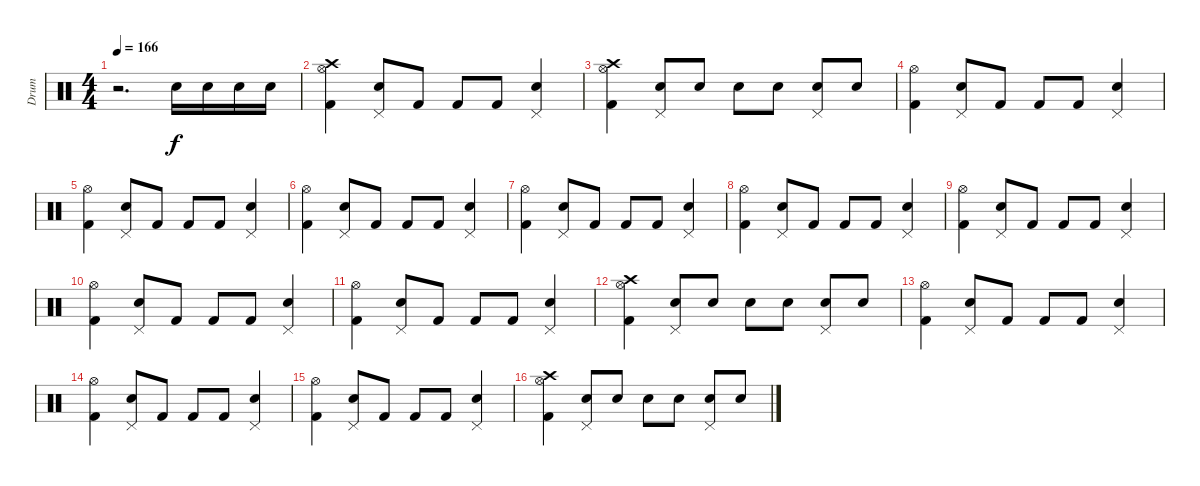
\track ("Drum" "Drum") {instrument percussion}
\staff {score}
\articulation defaults
\ts (4 4)
\tempo 166
\clef neutral
\ks c
r.2{d dy f} "Electric Snare (hit)".16 "Electric Snare (hit)".16 "Electric Snare (hit)".16 "Electric Snare (hit)".16 |
("Kick (hit) 2" "Hi-Hat (open)" "Crash high (hit)").4 ("Electric Snare (hit)" "Pedal Hi-Hat (hit)").8 "Kick (hit) 2".8 "Kick (hit) 2".8 "Kick (hit) 2".8 ("Electric Snare (hit)" "Pedal Hi-Hat (hit)").4 |
("Kick (hit) 2" "Hi-Hat (open)" "Crash high (hit)").4 ("Electric Snare (hit)" "Pedal Hi-Hat (hit)").8 "Electric Snare (hit)".8 "Electric Snare (hit)".8 "Electric Snare (hit)".8 ("Electric Snare (hit)" "Pedal Hi-Hat (hit)").8 "Electric Snare (hit)".8 |
("Kick (hit) 2" "Hi-Hat (open)").4 ("Electric Snare (hit)" "Pedal Hi-Hat (hit)").8 "Kick (hit) 2".8 "Kick (hit) 2".8 "Kick (hit) 2".8 ("Electric Snare (hit)" "Pedal Hi-Hat (hit)").4 |
("Kick (hit) 2" "Hi-Hat (open)").4 ("Electric Snare (hit)" "Pedal Hi-Hat (hit)").8 "Kick (hit) 2".8 "Kick (hit) 2".8 "Kick (hit) 2".8 ("Electric Snare (hit)" "Pedal Hi-Hat (hit)").4 |
("Kick (hit) 2" "Hi-Hat (open)").4 ("Electric Snare (hit)" "Pedal Hi-Hat (hit)").8 "Kick (hit) 2".8 "Kick (hit) 2".8 "Kick (hit) 2".8 ("Electric Snare (hit)" "Pedal Hi-Hat (hit)").4 |
("Kick (hit) 2" "Hi-Hat (open)").4 ("Electric Snare (hit)" "Pedal Hi-Hat (hit)").8 "Kick (hit) 2".8 "Kick (hit) 2".8 "Kick (hit) 2".8 ("Electric Snare (hit)" "Pedal Hi-Hat (hit)").4 |
("Kick (hit) 2" "Hi-Hat (open)").4 ("Electric Snare (hit)" "Pedal Hi-Hat (hit)").8 "Kick (hit) 2".8 "Kick (hit) 2".8 "Kick (hit) 2".8 ("Electric Snare (hit)" "Pedal Hi-Hat (hit)").4 |
("Kick (hit) 2" "Hi-Hat (open)").4 ("Electric Snare (hit)" "Pedal Hi-Hat (hit)").8 "Kick (hit) 2".8 "Kick (hit) 2".8 "Kick (hit) 2".8 ("Electric Snare (hit)" "Pedal Hi-Hat (hit)").4 |
("Kick (hit) 2" "Hi-Hat (open)").4 ("Electric Snare (hit)" "Pedal Hi-Hat (hit)").8 "Kick (hit) 2".8 "Kick (hit) 2".8 "Kick (hit) 2".8 ("Electric Snare (hit)" "Pedal Hi-Hat (hit)").4 |
("Kick (hit) 2" "Hi-Hat (open)").4 ("Electric Snare (hit)" "Pedal Hi-Hat (hit)").8 "Kick (hit) 2".8 "Kick (hit) 2".8 "Kick (hit) 2".8 ("Electric Snare (hit)" "Pedal Hi-Hat (hit)").4 |
("Kick (hit) 2" "Hi-Hat (open)" "Crash high (hit)").4 ("Electric Snare (hit)" "Pedal Hi-Hat (hit)").8 "Electric Snare (hit)".8 "Electric Snare (hit)".8 "Electric Snare (hit)".8 ("Electric Snare (hit)" "Pedal Hi-Hat (hit)").8 "Electric Snare (hit)".8 |
("Kick (hit) 2" "Hi-Hat (open)").4 ("Electric Snare (hit)" "Pedal Hi-Hat (hit)").8 "Kick (hit) 2".8 "Kick (hit) 2".8 "Kick (hit) 2".8 ("Electric Snare (hit)" "Pedal Hi-Hat (hit)").4 |
("Kick (hit) 2" "Hi-Hat (open)").4 ("Electric Snare (hit)" "Pedal Hi-Hat (hit)").8 "Kick (hit) 2".8 "Kick (hit) 2".8 "Kick (hit) 2".8 ("Electric Snare (hit)" "Pedal Hi-Hat (hit)").4 |
("Kick (hit) 2" "Hi-Hat (open)").4 ("Electric Snare (hit)" "Pedal Hi-Hat (hit)").8 "Kick (hit) 2".8 "Kick (hit) 2".8 "Kick (hit) 2".8 ("Electric Snare (hit)" "Pedal Hi-Hat (hit)").4 |
("Kick (hit) 2" "Hi-Hat (open)" "Crash high (hit)").4 ("Electric Snare (hit)" "Pedal Hi-Hat (hit)").8 "Electric Snare (hit)".8 "Electric Snare (hit)".8 "Electric Snare (hit)".8 ("Electric Snare (hit)" "Pedal Hi-Hat (hit)").8 "Electric Snare (hit)".8
